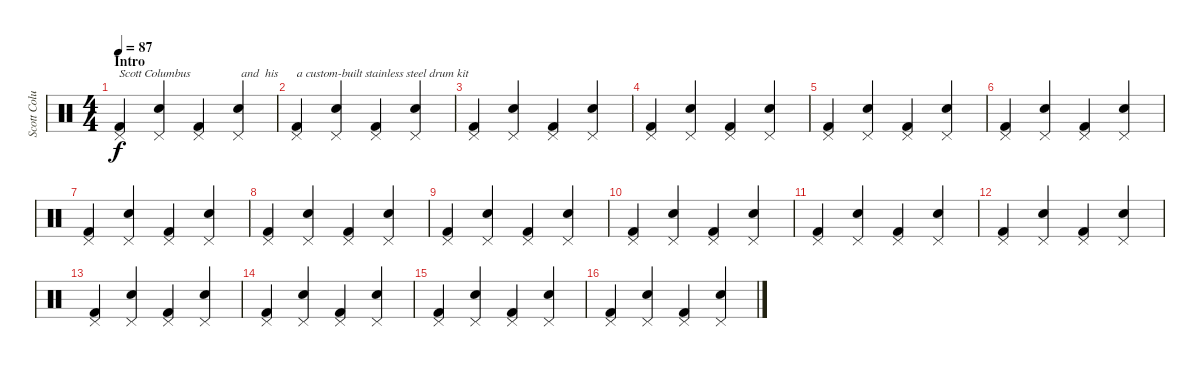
\track ("Scott Columbus" "Scott Colu") {instrument percussion}
\staff {score}
\articulation defaults
\ts (4 4)
\section ("" "Intro")
\tempo 87
\clef neutral
\ks c
("Pedal Hi-Hat (hit)" "Kick (hit) 2").4{txt "Scott Columbus" dy f} ("Snare (hit) 2" "Pedal Hi-Hat (hit)").4 ("Pedal Hi-Hat (hit)" "Kick (hit) 2").4 ("Snare (hit) 2" "Pedal Hi-Hat (hit)").4{txt " and  his"} |
("Pedal Hi-Hat (hit)" "Kick (hit) 2").4{txt "a custom-built stainless steel drum kit"} ("Snare (hit) 2" "Pedal Hi-Hat (hit)").4 ("Pedal Hi-Hat (hit)" "Kick (hit) 2").4 ("Snare (hit) 2" "Pedal Hi-Hat (hit)").4 |
("Pedal Hi-Hat (hit)" "Kick (hit) 2").4 ("Snare (hit) 2" "Pedal Hi-Hat (hit)").4 ("Pedal Hi-Hat (hit)" "Kick (hit) 2").4 ("Snare (hit) 2" "Pedal Hi-Hat (hit)").4 |
("Pedal Hi-Hat (hit)" "Kick (hit) 2").4 ("Snare (hit) 2" "Pedal Hi-Hat (hit)").4 ("Pedal Hi-Hat (hit)" "Kick (hit) 2").4 ("Snare (hit) 2" "Pedal Hi-Hat (hit)").4 |
("Pedal Hi-Hat (hit)" "Kick (hit) 2").4 ("Snare (hit) 2" "Pedal Hi-Hat (hit)").4 ("Pedal Hi-Hat (hit)" "Kick (hit) 2").4 ("Snare (hit) 2" "Pedal Hi-Hat (hit)").4 |
("Pedal Hi-Hat (hit)" "Kick (hit) 2").4 ("Snare (hit) 2" "Pedal Hi-Hat (hit)").4 ("Pedal Hi-Hat (hit)" "Kick (hit) 2").4 ("Snare (hit) 2" "Pedal Hi-Hat (hit)").4 |
("Pedal Hi-Hat (hit)" "Kick (hit) 2").4 ("Snare (hit) 2" "Pedal Hi-Hat (hit)").4 ("Pedal Hi-Hat (hit)" "Kick (hit) 2").4 ("Snare (hit) 2" "Pedal Hi-Hat (hit)").4 |
("Pedal Hi-Hat (hit)" "Kick (hit) 2").4 ("Snare (hit) 2" "Pedal Hi-Hat (hit)").4 ("Pedal Hi-Hat (hit)" "Kick (hit) 2").4 ("Snare (hit) 2" "Pedal Hi-Hat (hit)").4 |
("Pedal Hi-Hat (hit)" "Kick (hit) 2").4 ("Snare (hit) 2" "Pedal Hi-Hat (hit)").4 ("Pedal Hi-Hat (hit)" "Kick (hit) 2").4 ("Snare (hit) 2" "Pedal Hi-Hat (hit)").4 |
("Pedal Hi-Hat (hit)" "Kick (hit) 2").4 ("Snare (hit) 2" "Pedal Hi-Hat (hit)").4 ("Pedal Hi-Hat (hit)" "Kick (hit) 2").4 ("Snare (hit) 2" "Pedal Hi-Hat (hit)").4 |
("Pedal Hi-Hat (hit)" "Kick (hit) 2").4 ("Snare (hit) 2" "Pedal Hi-Hat (hit)").4 ("Pedal Hi-Hat (hit)" "Kick (hit) 2").4 ("Snare (hit) 2" "Pedal Hi-Hat (hit)").4 |
("Pedal Hi-Hat (hit)" "Kick (hit) 2").4 ("Snare (hit) 2" "Pedal Hi-Hat (hit)").4 ("Pedal Hi-Hat (hit)" "Kick (hit) 2").4 ("Snare (hit) 2" "Pedal Hi-Hat (hit)").4 |
("Pedal Hi-Hat (hit)" "Kick (hit) 2").4 ("Snare (hit) 2" "Pedal Hi-Hat (hit)").4 ("Pedal Hi-Hat (hit)" "Kick (hit) 2").4 ("Snare (hit) 2" "Pedal Hi-Hat (hit)").4 |
("Pedal Hi-Hat (hit)" "Kick (hit) 2").4 ("Snare (hit) 2" "Pedal Hi-Hat (hit)").4 ("Pedal Hi-Hat (hit)" "Kick (hit) 2").4 ("Snare (hit) 2" "Pedal Hi-Hat (hit)").4 |
("Pedal Hi-Hat (hit)" "Kick (hit) 2").4 ("Snare (hit) 2" "Pedal Hi-Hat (hit)").4 ("Pedal Hi-Hat (hit)" "Kick (hit) 2").4 ("Snare (hit) 2" "Pedal Hi-Hat (hit)").4 |
("Pedal Hi-Hat (hit)" "Kick (hit) 2").4 ("Snare (hit) 2" "Pedal Hi-Hat (hit)").4 ("Pedal Hi-Hat (hit)" "Kick (hit) 2").4 ("Snare (hit) 2" "Pedal Hi-Hat (hit)").4
